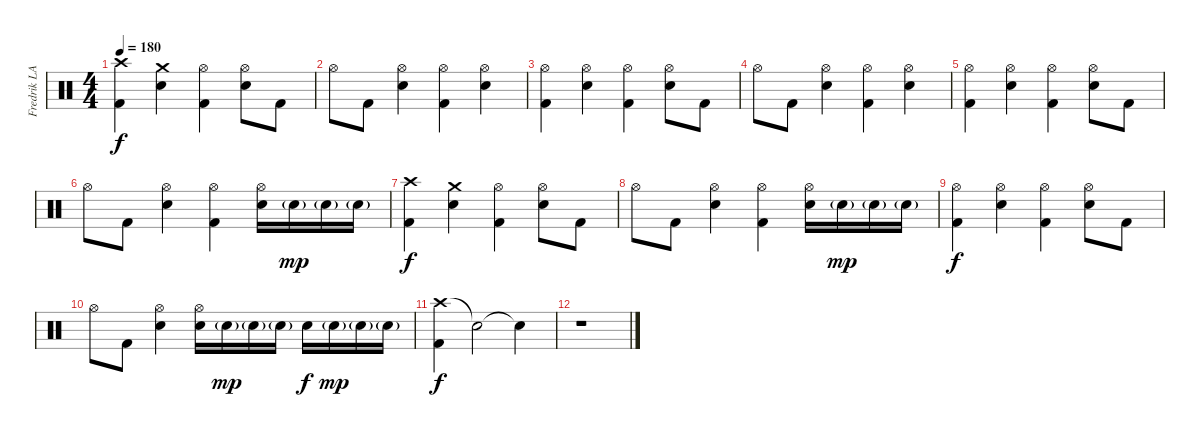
\track ("Fredrik LARZON" "Fredrik LA") {instrument percussion}
\staff {score}
\articulation defaults
\ts (4 4)
\tempo 180
\clef neutral
\ks c
("Crash high (hit)" "Kick (hit) 2").4{dy f} ("Crash medium (hit)" "Electric Snare (hit)").4 ("Hi-Hat (open)" "Kick (hit) 2").4 ("Hi-Hat (open)" "Electric Snare (hit)").8 "Kick (hit) 2".8 |
"Hi-Hat (open)".8 "Kick (hit) 2".8 ("Hi-Hat (open)" "Electric Snare (hit)").4 ("Hi-Hat (open)" "Kick (hit) 2").4 ("Hi-Hat (open)" "Electric Snare (hit)").4 |
("Hi-Hat (open)" "Kick (hit) 2").4 ("Hi-Hat (open)" "Electric Snare (hit)").4 ("Hi-Hat (open)" "Kick (hit) 2").4 ("Hi-Hat (open)" "Electric Snare (hit)").8 "Kick (hit) 2".8 |
"Hi-Hat (open)".8 "Kick (hit) 2".8 ("Hi-Hat (open)" "Electric Snare (hit)").4 ("Hi-Hat (open)" "Kick (hit) 2").4 ("Hi-Hat (open)" "Electric Snare (hit)").4 |
("Hi-Hat (open)" "Kick (hit) 2").4 ("Hi-Hat (open)" "Electric Snare (hit)").4 ("Hi-Hat (open)" "Kick (hit) 2").4 ("Hi-Hat (open)" "Electric Snare (hit)").8 "Kick (hit) 2".8 |
"Hi-Hat (open)".8 "Kick (hit) 2".8 ("Hi-Hat (open)" "Electric Snare (hit)").4 ("Hi-Hat (open)" "Kick (hit) 2").4 ("Hi-Hat (open)" "Electric Snare (hit)").16 "Electric Snare (hit)"{g}.16{dy mp} "Electric Snare (hit)"{g}.16 "Electric Snare (hit)"{g}.16 |
("Crash high (hit)" "Kick (hit) 2").4{dy f} ("Crash medium (hit)" "Electric Snare (hit)").4 ("Hi-Hat (open)" "Kick (hit) 2").4 ("Hi-Hat (open)" "Electric Snare (hit)").8 "Kick (hit) 2".8 |
"Hi-Hat (open)".8 "Kick (hit) 2".8 ("Hi-Hat (open)" "Electric Snare (hit)").4 ("Hi-Hat (open)" "Kick (hit) 2").4 ("Hi-Hat (open)" "Electric Snare (hit)").16 "Electric Snare (hit)"{g}.16{dy mp} "Electric Snare (hit)"{g}.16 "Electric Snare (hit)"{g}.16 |
("Hi-Hat (open)" "Kick (hit) 2").4{dy f} ("Hi-Hat (open)" "Electric Snare (hit)").4 ("Hi-Hat (open)" "Kick (hit) 2").4 ("Hi-Hat (open)" "Electric Snare (hit)").8 "Kick (hit) 2".8 |
"Hi-Hat (open)".8 "Kick (hit) 2".8 ("Hi-Hat (open)" "Electric Snare (hit)").4 ("Hi-Hat (open)" "Electric Snare (hit)").16 "Electric Snare (hit)"{g}.16{dy mp} "Electric Snare (hit)"{g}.16 "Electric Snare (hit)"{g}.16 "Electric Snare (hit)".16{dy f} "Electric Snare (hit)"{g}.16{dy mp} "Electric Snare (hit)"{g}.16 "Electric Snare (hit)"{g}.16 |
("Crash high (hit)" "Kick (hit) 2").4{dy f} "Snare (hit)"{t}.2 "Snare (hit)"{t}.4 |
r.1
